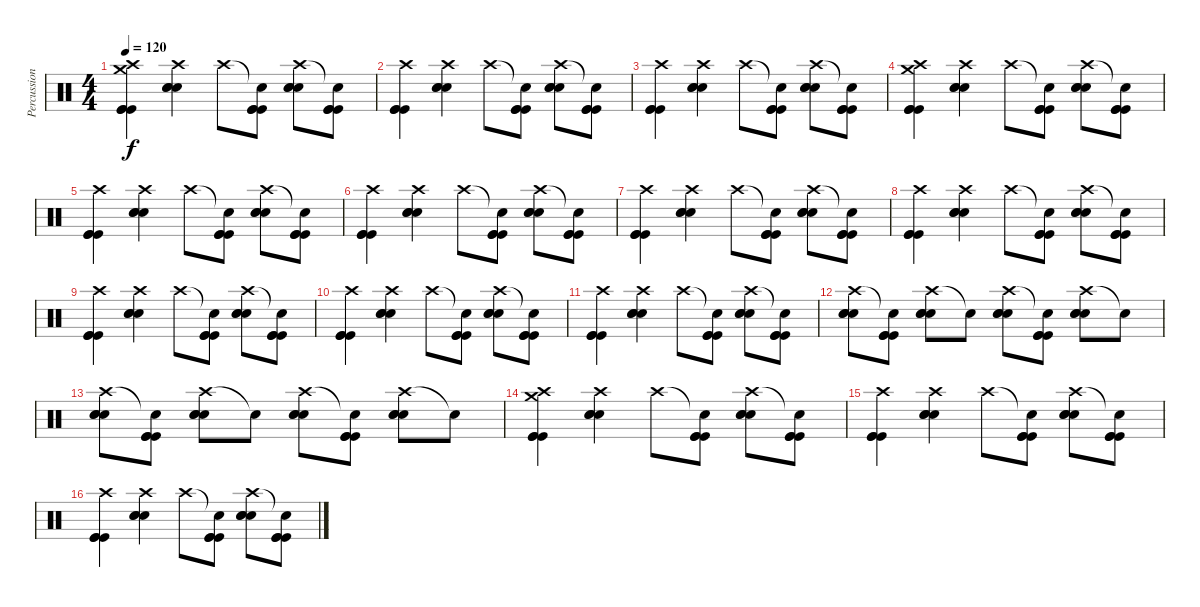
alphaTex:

\track ("Percussions" "Percussion") {instrument percussion}
\staff {score}
\articulation defaults
\ts (4 4)
\tempo 120
\clef neutral
\ks c
("Crash high (hit)" "Crash medium (hit)" "Kick (hit)" "Kick (hit)" "Kick (hit)").4{dy f} ("Crash high (hit)" "Snare (hit) 2" "Snare (hit) 2" "Snare (hit) 2").4 "Crash high (hit)".8 ("Snare (hit)"{t} "Kick (hit)" "Kick (hit)" "Kick (hit)").8 ("Crash high (hit)" "Snare (hit) 2" "Snare (hit) 2" "Snare (hit) 2").8 ("Snare (hit)"{t} "Kick (hit)" "Kick (hit)" "Kick (hit)").8 |
("Crash high (hit)" "Kick (hit)" "Kick (hit)" "Kick (hit)").4 ("Crash high (hit)" "Snare (hit) 2" "Snare (hit) 2" "Snare (hit) 2").4 "Crash high (hit)".8 ("Snare (hit)"{t} "Kick (hit)" "Kick (hit)" "Kick (hit)").8 ("Crash high (hit)" "Snare (hit) 2" "Snare (hit) 2" "Snare (hit) 2").8 ("Snare (hit)"{t} "Kick (hit)" "Kick (hit)" "Kick (hit)").8 |
("Crash high (hit)" "Kick (hit)" "Kick (hit)" "Kick (hit)").4 ("Crash high (hit)" "Snare (hit) 2" "Snare (hit) 2" "Snare (hit) 2").4 "Crash high (hit)".8 ("Snare (hit)"{t} "Kick (hit)" "Kick (hit)" "Kick (hit)").8 ("Crash high (hit)" "Snare (hit) 2" "Snare (hit) 2" "Snare (hit) 2").8 ("Snare (hit)"{t} "Kick (hit)" "Kick (hit)" "Kick (hit)").8 |
("Crash high (hit)" "Crash medium (hit)" "Kick (hit)" "Kick (hit)" "Kick (hit)").4 ("Crash high (hit)" "Snare (hit) 2" "Snare (hit) 2" "Snare (hit) 2").4 "Crash high (hit)".8 ("Snare (hit)"{t} "Kick (hit)" "Kick (hit)" "Kick (hit)").8 ("Crash high (hit)" "Snare (hit) 2" "Snare (hit) 2" "Snare (hit) 2").8 ("Snare (hit)"{t} "Kick (hit)" "Kick (hit)" "Kick (hit)").8 |
("Crash high (hit)" "Kick (hit)" "Kick (hit)" "Kick (hit)").4 ("Crash high (hit)" "Snare (hit) 2" "Snare (hit) 2" "Snare (hit) 2").4 "Crash high (hit)".8 ("Snare (hit)"{t} "Kick (hit)" "Kick (hit)" "Kick (hit)").8 ("Crash high (hit)" "Snare (hit) 2" "Snare (hit) 2" "Snare (hit) 2").8 ("Snare (hit)"{t} "Kick (hit)" "Kick (hit)" "Kick (hit)").8 |
("Crash high (hit)" "Kick (hit)" "Kick (hit)" "Kick (hit)").4 ("Crash high (hit)" "Snare (hit) 2" "Snare (hit) 2" "Snare (hit) 2").4 "Crash high (hit)".8 ("Snare (hit)"{t} "Kick (hit)" "Kick (hit)" "Kick (hit)").8 ("Crash high (hit)" "Snare (hit) 2" "Snare (hit) 2" "Snare (hit) 2").8 ("Snare (hit)"{t} "Kick (hit)" "Kick (hit)" "Kick (hit)").8 |
("Crash high (hit)" "Kick (hit)" "Kick (hit)" "Kick (hit)").4 ("Crash high (hit)" "Snare (hit) 2" "Snare (hit) 2" "Snare (hit) 2").4 "Crash high (hit)".8 ("Snare (hit)"{t} "Kick (hit)" "Kick (hit)" "Kick (hit)").8 ("Crash high (hit)" "Snare (hit) 2" "Snare (hit) 2" "Snare (hit) 2").8 ("Snare (hit)"{t} "Kick (hit)" "Kick (hit)" "Kick (hit)").8 |
("Crash high (hit)" "Kick (hit)" "Kick (hit)" "Kick (hit)").4 ("Crash high (hit)" "Snare (hit) 2" "Snare (hit) 2" "Snare (hit) 2").4 "Crash high (hit)".8 ("Snare (hit)"{t} "Kick (hit)" "Kick (hit)" "Kick (hit)").8 ("Crash high (hit)" "Snare (hit) 2" "Snare (hit) 2" "Snare (hit) 2").8 ("Snare (hit)"{t} "Kick (hit)" "Kick (hit)" "Kick (hit)").8 |
("Crash high (hit)" "Kick (hit)" "Kick (hit)" "Kick (hit)").4 ("Crash high (hit)" "Snare (hit) 2" "Snare (hit) 2" "Snare (hit) 2").4 "Crash high (hit)".8 ("Snare (hit)"{t} "Kick (hit)" "Kick (hit)" "Kick (hit)").8 ("Crash high (hit)" "Snare (hit) 2" "Snare (hit) 2" "Snare (hit) 2").8 ("Snare (hit)"{t} "Kick (hit)" "Kick (hit)" "Kick (hit)").8 |
("Crash high (hit)" "Kick (hit)" "Kick (hit)" "Kick (hit)").4 ("Crash high (hit)" "Snare (hit) 2" "Snare (hit) 2" "Snare (hit) 2").4 "Crash high (hit)".8 ("Snare (hit)"{t} "Kick (hit)" "Kick (hit)" "Kick (hit)").8 ("Crash high (hit)" "Snare (hit) 2" "Snare (hit) 2" "Snare (hit) 2").8 ("Snare (hit)"{t} "Kick (hit)" "Kick (hit)" "Kick (hit)").8 |
("Crash high (hit)" "Kick (hit)" "Kick (hit)" "Kick (hit)").4 ("Crash high (hit)" "Snare (hit) 2" "Snare (hit) 2" "Snare (hit) 2").4 "Crash high (hit)".8 ("Snare (hit)"{t} "Kick (hit)" "Kick (hit)" "Kick (hit)").8 ("Crash high (hit)" "Snare (hit) 2" "Snare (hit) 2" "Snare (hit) 2").8 ("Snare (hit)"{t} "Kick (hit)" "Kick (hit)" "Kick (hit)").8 |
("Crash high (hit)" "Snare (hit) 2" "Snare (hit) 2" "Snare (hit) 2").8 ("Snare (hit)"{t} "Kick (hit)" "Kick (hit)" "Kick (hit)").8 ("Crash high (hit)" "Snare (hit) 2" "Snare (hit) 2" "Snare (hit) 2").8 "Snare (hit)"{t}.8 ("Crash high (hit)" "Snare (hit) 2" "Snare (hit) 2" "Snare (hit) 2").8 ("Snare (hit)"{t} "Kick (hit)" "Kick (hit)" "Kick (hit)").8 ("Crash high (hit)" "Snare (hit) 2" "Snare (hit) 2" "Snare (hit) 2").8 "Snare (hit)"{t}.8 |
("Crash high (hit)" "Snare (hit) 2" "Snare (hit) 2" "Snare (hit) 2").8 ("Snare (hit)"{t} "Kick (hit)" "Kick (hit)" "Kick (hit)").8 ("Crash high (hit)" "Snare (hit) 2" "Snare (hit) 2" "Snare (hit) 2").8 "Snare (hit)"{t}.8 ("Crash high (hit)" "Snare (hit) 2" "Snare (hit) 2" "Snare (hit) 2").8 ("Snare (hit)"{t} "Kick (hit)" "Kick (hit)" "Kick (hit)").8 ("Crash high (hit)" "Snare (hit) 2" "Snare (hit) 2" "Snare (hit) 2").8 "Snare (hit)"{t}.8 |
("Crash high (hit)" "Crash medium (hit)" "Kick (hit)" "Kick (hit)" "Kick (hit)").4 ("Crash high (hit)" "Snare (hit) 2" "Snare (hit) 2" "Snare (hit) 2").4 "Crash high (hit)".8 ("Snare (hit)"{t} "Kick (hit)" "Kick (hit)" "Kick (hit)").8 ("Crash high (hit)" "Snare (hit) 2" "Snare (hit) 2" "Snare (hit) 2").8 ("Snare (hit)"{t} "Kick (hit)" "Kick (hit)" "Kick (hit)").8 |
("Crash high (hit)" "Kick (hit)" "Kick (hit)" "Kick (hit)").4 ("Crash high (hit)" "Snare (hit) 2" "Snare (hit) 2" "Snare (hit) 2").4 "Crash high (hit)".8 ("Snare (hit)"{t} "Kick (hit)" "Kick (hit)" "Kick (hit)").8 ("Crash high (hit)" "Snare (hit) 2" "Snare (hit) 2" "Snare (hit) 2").8 ("Snare (hit)"{t} "Kick (hit)" "Kick (hit)" "Kick (hit)").8 |
("Crash high (hit)" "Kick (hit)" "Kick (hit)" "Kick (hit)").4 ("Crash high (hit)" "Snare (hit) 2" "Snare (hit) 2" "Snare (hit) 2").4 "Crash high (hit)".8 ("Snare (hit)"{t} "Kick (hit)" "Kick (hit)" "Kick (hit)").8 ("Crash high (hit)" "Snare (hit) 2" "Snare (hit) 2" "Snare (hit) 2").8 ("Snare (hit)"{t} "Kick (hit)" "Kick (hit)" "Kick (hit)").8
